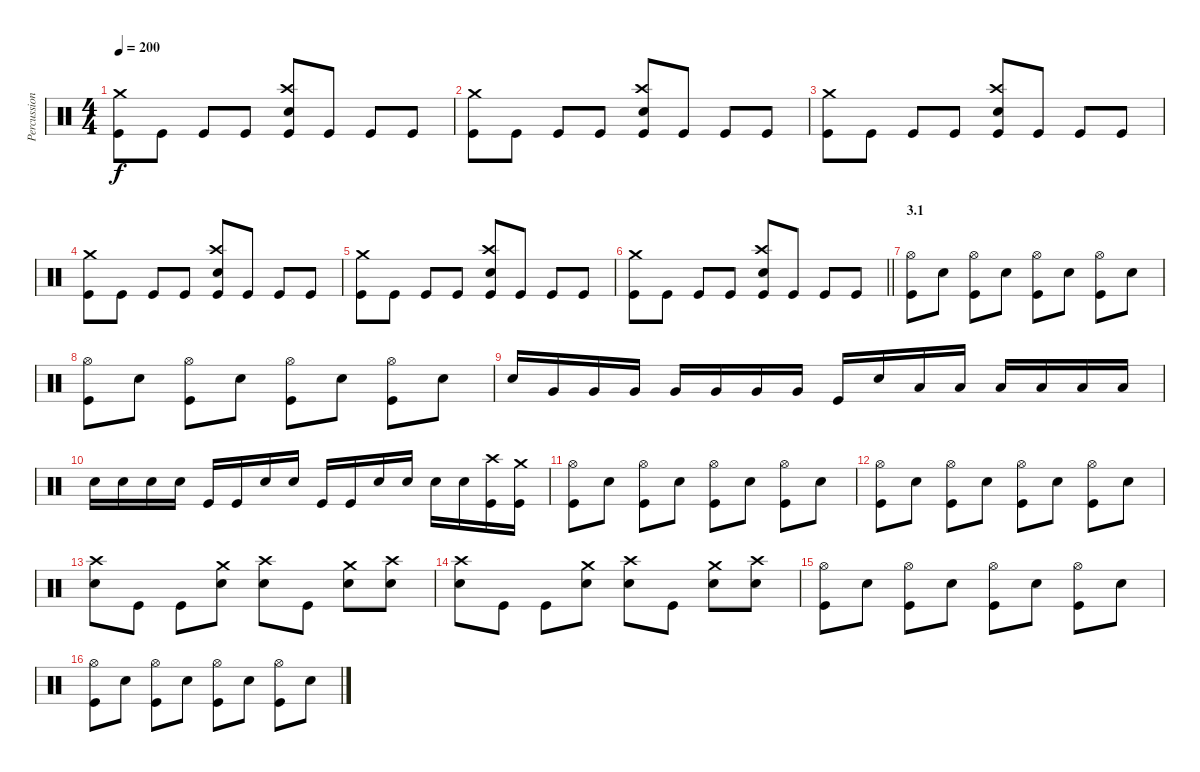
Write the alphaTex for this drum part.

\track ("Percussion" "Percussion") {instrument percussion}
\staff {score}
\articulation defaults
\ts (4 4)
\tempo 200
\clef neutral
\ks c
("Crash medium (hit)" "Kick (hit)").8{dy f} "Kick (hit)".8 "Kick (hit)".8 "Kick (hit)".8 ("Crash high (hit)" "Snare (hit) 2" "Kick (hit)").8 "Kick (hit)".8 "Kick (hit)".8 "Kick (hit)".8 |
("Crash medium (hit)" "Kick (hit)").8 "Kick (hit)".8 "Kick (hit)".8 "Kick (hit)".8 ("Crash high (hit)" "Snare (hit) 2" "Kick (hit)").8 "Kick (hit)".8 "Kick (hit)".8 "Kick (hit)".8 |
("Crash medium (hit)" "Kick (hit)").8 "Kick (hit)".8 "Kick (hit)".8 "Kick (hit)".8 ("Crash high (hit)" "Snare (hit) 2" "Kick (hit)").8 "Kick (hit)".8 "Kick (hit)".8 "Kick (hit)".8 |
("Crash medium (hit)" "Kick (hit)").8 "Kick (hit)".8 "Kick (hit)".8 "Kick (hit)".8 ("Crash high (hit)" "Snare (hit) 2" "Kick (hit)").8 "Kick (hit)".8 "Kick (hit)".8 "Kick (hit)".8 |
("Crash medium (hit)" "Kick (hit)").8 "Kick (hit)".8 "Kick (hit)".8 "Kick (hit)".8 ("Crash high (hit)" "Snare (hit) 2" "Kick (hit)").8 "Kick (hit)".8 "Kick (hit)".8 "Kick (hit)".8 |
\barLineRight lightlight
("Crash medium (hit)" "Kick (hit)").8 "Kick (hit)".8 "Kick (hit)".8 "Kick (hit)".8 ("Crash high (hit)" "Snare (hit) 2" "Kick (hit)").8 "Kick (hit)".8 "Kick (hit)".8 "Kick (hit)".8 |
\section ("" "3.1")
("Hi-Hat (open)" "Kick (hit)").8 "Snare (hit) 2".8 ("Hi-Hat (open)" "Kick (hit)").8 "Snare (hit) 2".8 ("Hi-Hat (open)" "Kick (hit)").8 "Snare (hit) 2".8 ("Hi-Hat (open)" "Kick (hit)").8 "Snare (hit) 2".8 |
("Hi-Hat (open)" "Kick (hit)").8 "Snare (hit) 2".8 ("Hi-Hat (open)" "Kick (hit)").8 "Snare (hit) 2".8 ("Hi-Hat (open)" "Kick (hit)").8 "Snare (hit) 2".8 ("Hi-Hat (open)" "Kick (hit)").8 "Snare (hit) 2".8 |
"Snare (hit) 2".16 "Very Low Tom (hit)".16 "Very Low Tom (hit)".16 "Very Low Tom (hit)".16 "Very Low Tom (hit)".16 "Very Low Tom (hit)".16 "Very Low Tom (hit)".16 "Very Low Tom (hit)".16 "Kick (hit)".16 "Snare (hit) 2".16 "Low Floor Tom (hit)".16 "Low Floor Tom (hit)".16 "Low Floor Tom (hit)".16 "Low Floor Tom (hit)".16 "Low Floor Tom (hit)".16 "Low Floor Tom (hit)".16 |
"Snare (hit) 2".16 "Snare (hit) 2".16 "Snare (hit) 2".16 "Snare (hit) 2".16 "Kick (hit)".16 "Kick (hit)".16 "Snare (hit) 2".16 "Snare (hit) 2".16 "Kick (hit)".16 "Kick (hit)".16 "Snare (hit) 2".16 "Snare (hit) 2".16 "Snare (hit) 2".16 "Snare (hit) 2".16 ("Crash high (hit)" "Kick (hit)").16 ("Crash medium (hit)" "Kick (hit)").16 |
("Hi-Hat (open)" "Kick (hit)").8 "Snare (hit) 2".8 ("Hi-Hat (open)" "Kick (hit)").8 "Snare (hit) 2".8 ("Hi-Hat (open)" "Kick (hit)").8 "Snare (hit) 2".8 ("Hi-Hat (open)" "Kick (hit)").8 "Snare (hit) 2".8 |
("Hi-Hat (open)" "Kick (hit)").8 "Snare (hit) 2".8 ("Hi-Hat (open)" "Kick (hit)").8 "Snare (hit) 2".8 ("Hi-Hat (open)" "Kick (hit)").8 "Snare (hit) 2".8 ("Hi-Hat (open)" "Kick (hit)").8 "Snare (hit) 2".8 |
("Crash high (hit)" "Snare (hit) 2").8 "Kick (hit)".8 "Kick (hit)".8 ("Crash medium (hit)" "Snare (hit) 2").8 ("Crash high (hit)" "Snare (hit) 2").8 "Kick (hit)".8 ("Crash medium (hit)" "Snare (hit) 2").8 ("Crash high (hit)" "Snare (hit) 2").8 |
("Crash high (hit)" "Snare (hit) 2").8 "Kick (hit)".8 "Kick (hit)".8 ("Crash medium (hit)" "Snare (hit) 2").8 ("Crash high (hit)" "Snare (hit) 2").8 "Kick (hit)".8 ("Crash medium (hit)" "Snare (hit) 2").8 ("Crash high (hit)" "Snare (hit) 2").8 |
("Hi-Hat (open)" "Kick (hit)").8 "Snare (hit) 2".8 ("Hi-Hat (open)" "Kick (hit)").8 "Snare (hit) 2".8 ("Hi-Hat (open)" "Kick (hit)").8 "Snare (hit) 2".8 ("Hi-Hat (open)" "Kick (hit)").8 "Snare (hit) 2".8 |
("Hi-Hat (open)" "Kick (hit)").8 "Snare (hit) 2".8 ("Hi-Hat (open)" "Kick (hit)").8 "Snare (hit) 2".8 ("Hi-Hat (open)" "Kick (hit)").8 "Snare (hit) 2".8 ("Hi-Hat (open)" "Kick (hit)").8 "Snare (hit) 2".8
